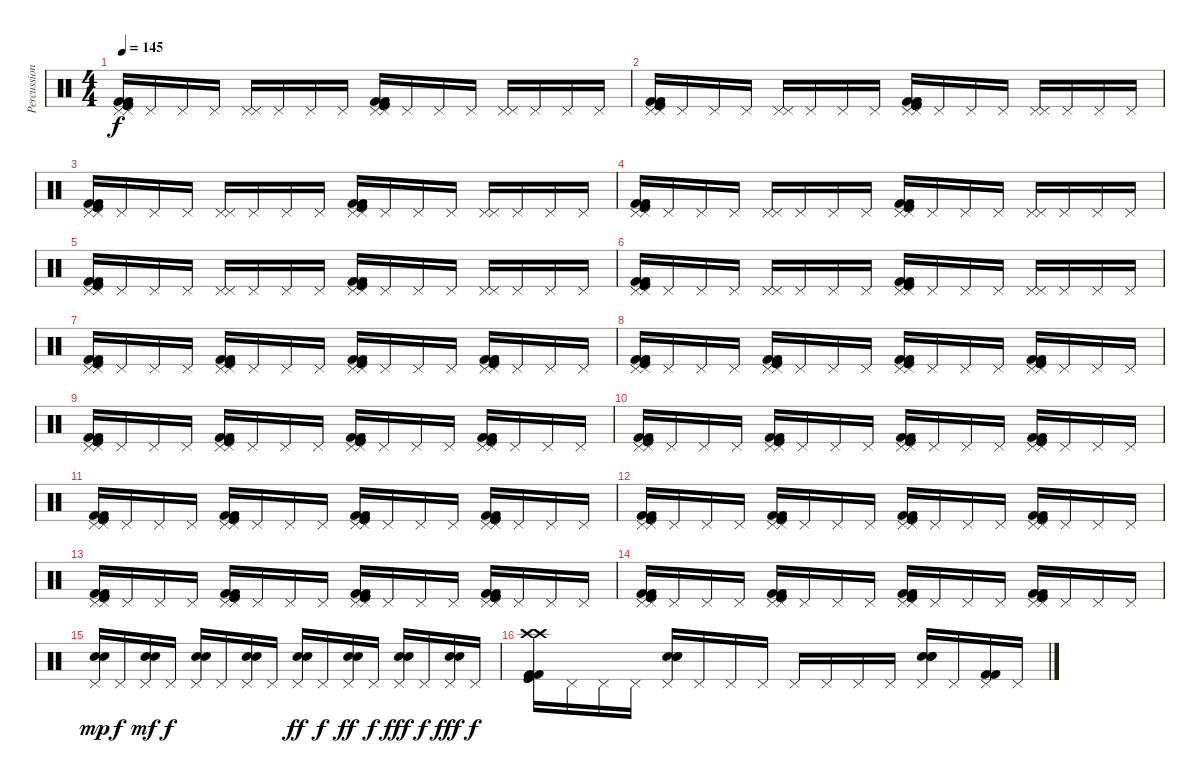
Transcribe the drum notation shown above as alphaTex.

\track ("Percussion" "Percussion") {instrument percussion}
\staff {score}
\articulation defaults
\ts (4 4)
\tempo 145
\clef neutral
\ks c
("Pedal Hi-Hat (hit)" "Pedal Hi-Hat (hit)" "Kick (hit)" "Kick (hit)" "Kick (hit) 2" "Kick (hit) 2").16{dy f} "Pedal Hi-Hat (hit)".16 "Pedal Hi-Hat (hit)".16 "Pedal Hi-Hat (hit)".16 ("Pedal Hi-Hat (hit)" "Pedal Hi-Hat (hit)").16 "Pedal Hi-Hat (hit)".16 "Pedal Hi-Hat (hit)".16 "Pedal Hi-Hat (hit)".16 ("Pedal Hi-Hat (hit)" "Pedal Hi-Hat (hit)" "Kick (hit)" "Kick (hit)" "Kick (hit) 2" "Kick (hit) 2").16 "Pedal Hi-Hat (hit)".16 "Pedal Hi-Hat (hit)".16 "Pedal Hi-Hat (hit)".16 ("Pedal Hi-Hat (hit)" "Pedal Hi-Hat (hit)").16 "Pedal Hi-Hat (hit)".16 "Pedal Hi-Hat (hit)".16 "Pedal Hi-Hat (hit)".16 |
("Pedal Hi-Hat (hit)" "Pedal Hi-Hat (hit)" "Kick (hit)" "Kick (hit)" "Kick (hit) 2" "Kick (hit) 2").16 "Pedal Hi-Hat (hit)".16 "Pedal Hi-Hat (hit)".16 "Pedal Hi-Hat (hit)".16 ("Pedal Hi-Hat (hit)" "Pedal Hi-Hat (hit)").16 "Pedal Hi-Hat (hit)".16 "Pedal Hi-Hat (hit)".16 "Pedal Hi-Hat (hit)".16 ("Pedal Hi-Hat (hit)" "Pedal Hi-Hat (hit)" "Kick (hit)" "Kick (hit)" "Kick (hit) 2" "Kick (hit) 2").16 "Pedal Hi-Hat (hit)".16 "Pedal Hi-Hat (hit)".16 "Pedal Hi-Hat (hit)".16 ("Pedal Hi-Hat (hit)" "Pedal Hi-Hat (hit)").16 "Pedal Hi-Hat (hit)".16 "Pedal Hi-Hat (hit)".16 "Pedal Hi-Hat (hit)".16 |
("Pedal Hi-Hat (hit)" "Pedal Hi-Hat (hit)" "Kick (hit)" "Kick (hit)" "Kick (hit) 2" "Kick (hit) 2").16 "Pedal Hi-Hat (hit)".16 "Pedal Hi-Hat (hit)".16 "Pedal Hi-Hat (hit)".16 ("Pedal Hi-Hat (hit)" "Pedal Hi-Hat (hit)").16 "Pedal Hi-Hat (hit)".16 "Pedal Hi-Hat (hit)".16 "Pedal Hi-Hat (hit)".16 ("Pedal Hi-Hat (hit)" "Pedal Hi-Hat (hit)" "Kick (hit)" "Kick (hit)" "Kick (hit) 2" "Kick (hit) 2").16 "Pedal Hi-Hat (hit)".16 "Pedal Hi-Hat (hit)".16 "Pedal Hi-Hat (hit)".16 ("Pedal Hi-Hat (hit)" "Pedal Hi-Hat (hit)").16 "Pedal Hi-Hat (hit)".16 "Pedal Hi-Hat (hit)".16 "Pedal Hi-Hat (hit)".16 |
("Pedal Hi-Hat (hit)" "Pedal Hi-Hat (hit)" "Kick (hit)" "Kick (hit)" "Kick (hit) 2" "Kick (hit) 2").16 "Pedal Hi-Hat (hit)".16 "Pedal Hi-Hat (hit)".16 "Pedal Hi-Hat (hit)".16 ("Pedal Hi-Hat (hit)" "Pedal Hi-Hat (hit)").16 "Pedal Hi-Hat (hit)".16 "Pedal Hi-Hat (hit)".16 "Pedal Hi-Hat (hit)".16 ("Pedal Hi-Hat (hit)" "Pedal Hi-Hat (hit)" "Kick (hit)" "Kick (hit)" "Kick (hit) 2" "Kick (hit) 2").16 "Pedal Hi-Hat (hit)".16 "Pedal Hi-Hat (hit)".16 "Pedal Hi-Hat (hit)".16 ("Pedal Hi-Hat (hit)" "Pedal Hi-Hat (hit)").16 "Pedal Hi-Hat (hit)".16 "Pedal Hi-Hat (hit)".16 "Pedal Hi-Hat (hit)".16 |
("Pedal Hi-Hat (hit)" "Pedal Hi-Hat (hit)" "Kick (hit)" "Kick (hit)" "Kick (hit) 2" "Kick (hit) 2").16 "Pedal Hi-Hat (hit)".16 "Pedal Hi-Hat (hit)".16 "Pedal Hi-Hat (hit)".16 ("Pedal Hi-Hat (hit)" "Pedal Hi-Hat (hit)").16 "Pedal Hi-Hat (hit)".16 "Pedal Hi-Hat (hit)".16 "Pedal Hi-Hat (hit)".16 ("Pedal Hi-Hat (hit)" "Pedal Hi-Hat (hit)" "Kick (hit)" "Kick (hit)" "Kick (hit) 2" "Kick (hit) 2").16 "Pedal Hi-Hat (hit)".16 "Pedal Hi-Hat (hit)".16 "Pedal Hi-Hat (hit)".16 ("Pedal Hi-Hat (hit)" "Pedal Hi-Hat (hit)").16 "Pedal Hi-Hat (hit)".16 "Pedal Hi-Hat (hit)".16 "Pedal Hi-Hat (hit)".16 |
("Pedal Hi-Hat (hit)" "Pedal Hi-Hat (hit)" "Kick (hit)" "Kick (hit)" "Kick (hit) 2" "Kick (hit) 2").16 "Pedal Hi-Hat (hit)".16 "Pedal Hi-Hat (hit)".16 "Pedal Hi-Hat (hit)".16 ("Pedal Hi-Hat (hit)" "Pedal Hi-Hat (hit)").16 "Pedal Hi-Hat (hit)".16 "Pedal Hi-Hat (hit)".16 "Pedal Hi-Hat (hit)".16 ("Pedal Hi-Hat (hit)" "Pedal Hi-Hat (hit)" "Kick (hit)" "Kick (hit)" "Kick (hit) 2" "Kick (hit) 2").16 "Pedal Hi-Hat (hit)".16 "Pedal Hi-Hat (hit)".16 "Pedal Hi-Hat (hit)".16 ("Pedal Hi-Hat (hit)" "Pedal Hi-Hat (hit)").16 "Pedal Hi-Hat (hit)".16 "Pedal Hi-Hat (hit)".16 "Pedal Hi-Hat (hit)".16 |
("Pedal Hi-Hat (hit)" "Pedal Hi-Hat (hit)" "Kick (hit)" "Kick (hit)" "Kick (hit) 2" "Kick (hit) 2").16 "Pedal Hi-Hat (hit)".16 "Pedal Hi-Hat (hit)".16 "Pedal Hi-Hat (hit)".16 ("Pedal Hi-Hat (hit)" "Pedal Hi-Hat (hit)" "Kick (hit)" "Kick (hit)" "Kick (hit) 2" "Kick (hit) 2").16 "Pedal Hi-Hat (hit)".16 "Pedal Hi-Hat (hit)".16 "Pedal Hi-Hat (hit)".16 ("Pedal Hi-Hat (hit)" "Pedal Hi-Hat (hit)" "Kick (hit)" "Kick (hit)" "Kick (hit) 2" "Kick (hit) 2").16 "Pedal Hi-Hat (hit)".16 "Pedal Hi-Hat (hit)".16 "Pedal Hi-Hat (hit)".16 ("Pedal Hi-Hat (hit)" "Pedal Hi-Hat (hit)" "Kick (hit)" "Kick (hit)" "Kick (hit) 2" "Kick (hit) 2").16 "Pedal Hi-Hat (hit)".16 "Pedal Hi-Hat (hit)".16 "Pedal Hi-Hat (hit)".16 |
("Pedal Hi-Hat (hit)" "Pedal Hi-Hat (hit)" "Kick (hit)" "Kick (hit)" "Kick (hit) 2" "Kick (hit) 2").16 "Pedal Hi-Hat (hit)".16 "Pedal Hi-Hat (hit)".16 "Pedal Hi-Hat (hit)".16 ("Pedal Hi-Hat (hit)" "Pedal Hi-Hat (hit)" "Kick (hit)" "Kick (hit)" "Kick (hit) 2" "Kick (hit) 2").16 "Pedal Hi-Hat (hit)".16 "Pedal Hi-Hat (hit)".16 "Pedal Hi-Hat (hit)".16 ("Pedal Hi-Hat (hit)" "Pedal Hi-Hat (hit)" "Kick (hit)" "Kick (hit)" "Kick (hit) 2" "Kick (hit) 2").16 "Pedal Hi-Hat (hit)".16 "Pedal Hi-Hat (hit)".16 "Pedal Hi-Hat (hit)".16 ("Pedal Hi-Hat (hit)" "Pedal Hi-Hat (hit)" "Kick (hit)" "Kick (hit)" "Kick (hit) 2" "Kick (hit) 2").16 "Pedal Hi-Hat (hit)".16 "Pedal Hi-Hat (hit)".16 "Pedal Hi-Hat (hit)".16 |
("Pedal Hi-Hat (hit)" "Pedal Hi-Hat (hit)" "Kick (hit)" "Kick (hit)" "Kick (hit) 2" "Kick (hit) 2").16 "Pedal Hi-Hat (hit)".16 "Pedal Hi-Hat (hit)".16 "Pedal Hi-Hat (hit)".16 ("Pedal Hi-Hat (hit)" "Pedal Hi-Hat (hit)" "Kick (hit)" "Kick (hit)" "Kick (hit) 2" "Kick (hit) 2").16 "Pedal Hi-Hat (hit)".16 "Pedal Hi-Hat (hit)".16 "Pedal Hi-Hat (hit)".16 ("Pedal Hi-Hat (hit)" "Pedal Hi-Hat (hit)" "Kick (hit)" "Kick (hit)" "Kick (hit) 2" "Kick (hit) 2").16 "Pedal Hi-Hat (hit)".16 "Pedal Hi-Hat (hit)".16 "Pedal Hi-Hat (hit)".16 ("Pedal Hi-Hat (hit)" "Pedal Hi-Hat (hit)" "Kick (hit)" "Kick (hit)" "Kick (hit) 2" "Kick (hit) 2").16 "Pedal Hi-Hat (hit)".16 "Pedal Hi-Hat (hit)".16 "Pedal Hi-Hat (hit)".16 |
("Pedal Hi-Hat (hit)" "Pedal Hi-Hat (hit)" "Kick (hit)" "Kick (hit)" "Kick (hit) 2" "Kick (hit) 2").16 "Pedal Hi-Hat (hit)".16 "Pedal Hi-Hat (hit)".16 "Pedal Hi-Hat (hit)".16 ("Pedal Hi-Hat (hit)" "Pedal Hi-Hat (hit)" "Kick (hit)" "Kick (hit)" "Kick (hit) 2" "Kick (hit) 2").16 "Pedal Hi-Hat (hit)".16 "Pedal Hi-Hat (hit)".16 "Pedal Hi-Hat (hit)".16 ("Pedal Hi-Hat (hit)" "Pedal Hi-Hat (hit)" "Kick (hit)" "Kick (hit)" "Kick (hit) 2" "Kick (hit) 2").16 "Pedal Hi-Hat (hit)".16 "Pedal Hi-Hat (hit)".16 "Pedal Hi-Hat (hit)".16 ("Pedal Hi-Hat (hit)" "Pedal Hi-Hat (hit)" "Kick (hit)" "Kick (hit)" "Kick (hit) 2" "Kick (hit) 2").16 "Pedal Hi-Hat (hit)".16 "Pedal Hi-Hat (hit)".16 "Pedal Hi-Hat (hit)".16 |
("Pedal Hi-Hat (hit)" "Pedal Hi-Hat (hit)" "Kick (hit)" "Kick (hit)" "Kick (hit) 2" "Kick (hit) 2").16 "Pedal Hi-Hat (hit)".16 "Pedal Hi-Hat (hit)".16 "Pedal Hi-Hat (hit)".16 ("Pedal Hi-Hat (hit)" "Pedal Hi-Hat (hit)" "Kick (hit)" "Kick (hit)" "Kick (hit) 2" "Kick (hit) 2").16 "Pedal Hi-Hat (hit)".16 "Pedal Hi-Hat (hit)".16 "Pedal Hi-Hat (hit)".16 ("Pedal Hi-Hat (hit)" "Pedal Hi-Hat (hit)" "Kick (hit)" "Kick (hit)" "Kick (hit) 2" "Kick (hit) 2").16 "Pedal Hi-Hat (hit)".16 "Pedal Hi-Hat (hit)".16 "Pedal Hi-Hat (hit)".16 ("Pedal Hi-Hat (hit)" "Pedal Hi-Hat (hit)" "Kick (hit)" "Kick (hit)" "Kick (hit) 2" "Kick (hit) 2").16 "Pedal Hi-Hat (hit)".16 "Pedal Hi-Hat (hit)".16 "Pedal Hi-Hat (hit)".16 |
("Pedal Hi-Hat (hit)" "Pedal Hi-Hat (hit)" "Kick (hit)" "Kick (hit)" "Kick (hit) 2" "Kick (hit) 2").16 "Pedal Hi-Hat (hit)".16 "Pedal Hi-Hat (hit)".16 "Pedal Hi-Hat (hit)".16 ("Pedal Hi-Hat (hit)" "Pedal Hi-Hat (hit)" "Kick (hit)" "Kick (hit)" "Kick (hit) 2" "Kick (hit) 2").16 "Pedal Hi-Hat (hit)".16 "Pedal Hi-Hat (hit)".16 "Pedal Hi-Hat (hit)".16 ("Pedal Hi-Hat (hit)" "Pedal Hi-Hat (hit)" "Kick (hit)" "Kick (hit)" "Kick (hit) 2" "Kick (hit) 2").16 "Pedal Hi-Hat (hit)".16 "Pedal Hi-Hat (hit)".16 "Pedal Hi-Hat (hit)".16 ("Pedal Hi-Hat (hit)" "Pedal Hi-Hat (hit)" "Kick (hit)" "Kick (hit)" "Kick (hit) 2" "Kick (hit) 2").16 "Pedal Hi-Hat (hit)".16 "Pedal Hi-Hat (hit)".16 "Pedal Hi-Hat (hit)".16 |
("Pedal Hi-Hat (hit)" "Pedal Hi-Hat (hit)" "Kick (hit)" "Kick (hit)" "Kick (hit) 2" "Kick (hit) 2").16 "Pedal Hi-Hat (hit)".16 "Pedal Hi-Hat (hit)".16 "Pedal Hi-Hat (hit)".16 ("Pedal Hi-Hat (hit)" "Pedal Hi-Hat (hit)" "Kick (hit)" "Kick (hit)" "Kick (hit) 2" "Kick (hit) 2").16 "Pedal Hi-Hat (hit)".16 "Pedal Hi-Hat (hit)".16 "Pedal Hi-Hat (hit)".16 ("Pedal Hi-Hat (hit)" "Pedal Hi-Hat (hit)" "Kick (hit)" "Kick (hit)" "Kick (hit) 2" "Kick (hit) 2").16 "Pedal Hi-Hat (hit)".16 "Pedal Hi-Hat (hit)".16 "Pedal Hi-Hat (hit)".16 ("Pedal Hi-Hat (hit)" "Pedal Hi-Hat (hit)" "Kick (hit)" "Kick (hit)" "Kick (hit) 2" "Kick (hit) 2").16 "Pedal Hi-Hat (hit)".16 "Pedal Hi-Hat (hit)".16 "Pedal Hi-Hat (hit)".16 |
("Pedal Hi-Hat (hit)" "Pedal Hi-Hat (hit)" "Kick (hit)" "Kick (hit)" "Kick (hit) 2" "Kick (hit) 2").16 "Pedal Hi-Hat (hit)".16 "Pedal Hi-Hat (hit)".16 "Pedal Hi-Hat (hit)".16 ("Pedal Hi-Hat (hit)" "Pedal Hi-Hat (hit)" "Kick (hit)" "Kick (hit)" "Kick (hit) 2" "Kick (hit) 2").16 "Pedal Hi-Hat (hit)".16 "Pedal Hi-Hat (hit)".16 "Pedal Hi-Hat (hit)".16 ("Pedal Hi-Hat (hit)" "Pedal Hi-Hat (hit)" "Kick (hit)" "Kick (hit)" "Kick (hit) 2" "Kick (hit) 2").16 "Pedal Hi-Hat (hit)".16 "Pedal Hi-Hat (hit)".16 "Pedal Hi-Hat (hit)".16 ("Pedal Hi-Hat (hit)" "Pedal Hi-Hat (hit)" "Kick (hit)" "Kick (hit)" "Kick (hit) 2" "Kick (hit) 2").16 "Pedal Hi-Hat (hit)".16 "Pedal Hi-Hat (hit)".16 "Pedal Hi-Hat (hit)".16 |
("Pedal Hi-Hat (hit)" "Snare (hit) 2" "Snare (hit) 2").16{dy mp} "Pedal Hi-Hat (hit)".16{dy f} ("Pedal Hi-Hat (hit)" "Snare (hit) 2" "Snare (hit) 2").16{dy mf} "Pedal Hi-Hat (hit)".16{dy f} ("Pedal Hi-Hat (hit)" "Snare (hit) 2" "Snare (hit) 2").16 "Pedal Hi-Hat (hit)".16 ("Pedal Hi-Hat (hit)" "Snare (hit) 2" "Snare (hit) 2").16 "Pedal Hi-Hat (hit)".16 ("Pedal Hi-Hat (hit)" "Snare (hit) 2" "Snare (hit) 2").16{dy ff} "Pedal Hi-Hat (hit)".16{dy f} ("Pedal Hi-Hat (hit)" "Snare (hit) 2" "Snare (hit) 2").16{dy ff} "Pedal Hi-Hat (hit)".16{dy f} ("Pedal Hi-Hat (hit)" "Snare (hit) 2" "Snare (hit) 2").16{dy fff} "Pedal Hi-Hat (hit)".16{dy f} ("Pedal Hi-Hat (hit)" "Snare (hit) 2" "Snare (hit) 2").16{dy fff} "Pedal Hi-Hat (hit)".16{dy f} |
("Crash high (hit)" "Crash high (hit)" "Kick (hit)" "Kick (hit)" "Kick (hit) 2" "Kick (hit) 2").16 "Pedal Hi-Hat (hit)".16 "Pedal Hi-Hat (hit)".16 "Pedal Hi-Hat (hit)".16 ("Pedal Hi-Hat (hit)" "Snare (hit) 2" "Snare (hit) 2" "Snare (hit) 2").16 "Pedal Hi-Hat (hit)".16 "Pedal Hi-Hat (hit)".16 "Pedal Hi-Hat (hit)".16 "Pedal Hi-Hat (hit)".16 "Pedal Hi-Hat (hit)".16 "Pedal Hi-Hat (hit)".16 "Pedal Hi-Hat (hit)".16 ("Pedal Hi-Hat (hit)" "Snare (hit) 2" "Snare (hit) 2" "Snare (hit) 2").16 "Pedal Hi-Hat (hit)".16 ("Pedal Hi-Hat (hit)" "Kick (hit) 2" "Kick (hit) 2").16 "Pedal Hi-Hat (hit)".16
